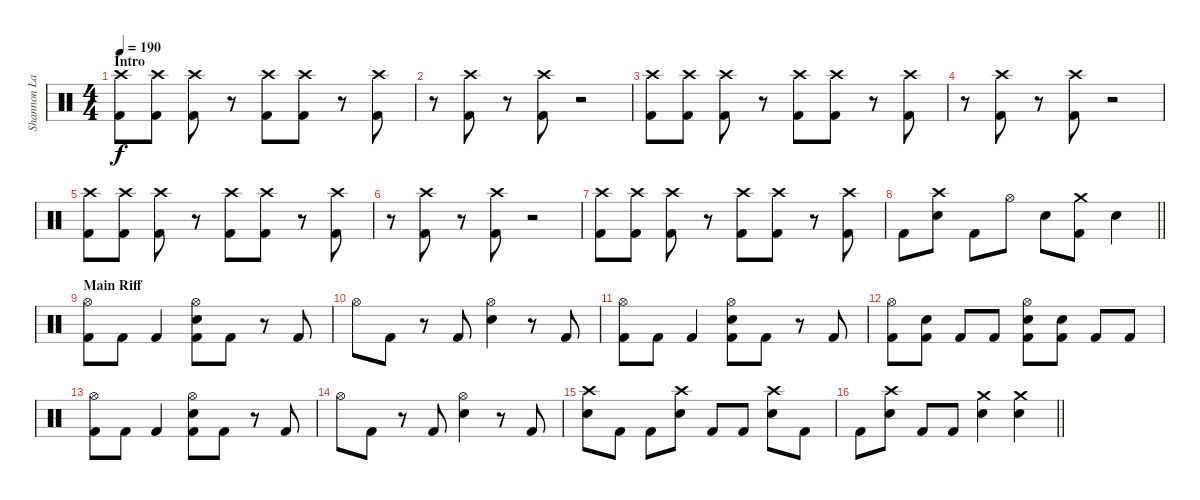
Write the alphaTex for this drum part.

\track ("Shannon Larkin" "Shannon La") {instrument percussion}
\staff {score}
\articulation defaults
\ts (4 4)
\section ("" "Intro")
\tempo 190
\clef neutral
\ks c
("Crash high (hit)" "Kick (hit) 2").8{dy f} ("Crash high (hit)" "Kick (hit) 2").8 ("Crash high (hit)" "Kick (hit) 2").8 r.8 ("Crash high (hit)" "Kick (hit) 2").8 ("Crash high (hit)" "Kick (hit) 2").8 r.8 ("Crash high (hit)" "Kick (hit) 2").8 |
r.8 ("Crash high (hit)" "Kick (hit) 2").8 r.8 ("Crash high (hit)" "Kick (hit) 2").8 r.2 |
("Crash high (hit)" "Kick (hit) 2").8 ("Crash high (hit)" "Kick (hit) 2").8 ("Crash high (hit)" "Kick (hit) 2").8 r.8 ("Crash high (hit)" "Kick (hit) 2").8 ("Crash high (hit)" "Kick (hit) 2").8 r.8 ("Crash high (hit)" "Kick (hit) 2").8 |
r.8 ("Crash high (hit)" "Kick (hit) 2").8 r.8 ("Crash high (hit)" "Kick (hit) 2").8 r.2 |
("Crash high (hit)" "Kick (hit) 2").8 ("Crash high (hit)" "Kick (hit) 2").8 ("Crash high (hit)" "Kick (hit) 2").8 r.8 ("Crash high (hit)" "Kick (hit) 2").8 ("Crash high (hit)" "Kick (hit) 2").8 r.8 ("Crash high (hit)" "Kick (hit) 2").8 |
r.8 ("Crash high (hit)" "Kick (hit) 2").8 r.8 ("Crash high (hit)" "Kick (hit) 2").8 r.2 |
("Crash high (hit)" "Kick (hit) 2").8 ("Crash high (hit)" "Kick (hit) 2").8 ("Crash high (hit)" "Kick (hit) 2").8 r.8 ("Crash high (hit)" "Kick (hit) 2").8 ("Crash high (hit)" "Kick (hit) 2").8 r.8 ("Crash high (hit)" "Kick (hit) 2").8 |
\barLineRight lightlight "Kick (hit) 2".8
("Crash high (hit)" "Snare (hit) 2").8 "Kick (hit) 2".8 "Hi-Hat (open)".8 "Snare (hit) 2".8 ("Crash medium (hit)" "Kick (hit) 2").8 "Snare (hit) 2".4 |
\section ("" "Main Riff")
("Hi-Hat (open)" "Kick (hit) 2").8 "Kick (hit) 2".8 "Kick (hit) 2".4 ("Hi-Hat (open)" "Snare (hit) 2" "Kick (hit) 2").8 "Kick (hit) 2".8 r.8 "Kick (hit) 2".8 |
"Hi-Hat (open)".8 "Kick (hit) 2".8 r.8 "Kick (hit) 2".8 ("Hi-Hat (open)" "Snare (hit) 2").4 r.8 "Kick (hit) 2".8 |
("Hi-Hat (open)" "Kick (hit) 2").8 "Kick (hit) 2".8 "Kick (hit) 2".4 ("Hi-Hat (open)" "Snare (hit) 2" "Kick (hit) 2").8 "Kick (hit) 2".8 r.8 "Kick (hit) 2".8 |
("Hi-Hat (open)" "Kick (hit) 2").8 ("Snare (hit) 2" "Kick (hit) 2").8 "Kick (hit) 2".8 "Kick (hit) 2".8 ("Hi-Hat (open)" "Snare (hit) 2" "Kick (hit) 2").8 ("Snare (hit) 2" "Kick (hit) 2").8 "Kick (hit) 2".8 "Kick (hit) 2".8 |
("Hi-Hat (open)" "Kick (hit) 2").8 "Kick (hit) 2".8 "Kick (hit) 2".4 ("Hi-Hat (open)" "Snare (hit) 2" "Kick (hit) 2").8 "Kick (hit) 2".8 r.8 "Kick (hit) 2".8 |
"Hi-Hat (open)".8 "Kick (hit) 2".8 r.8 "Kick (hit) 2".8 ("Hi-Hat (open)" "Snare (hit) 2").4 r.8 "Kick (hit) 2".8 |
("Crash high (hit)" "Snare (hit) 2").8 "Kick (hit) 2".8 "Kick (hit) 2".8 ("Crash high (hit)" "Snare (hit) 2").8 "Kick (hit) 2".8 "Kick (hit) 2".8 ("Crash high (hit)" "Snare (hit) 2").8 "Kick (hit) 2".8 |
\barLineRight lightlight "Kick (hit) 2".8
("Crash high (hit)" "Snare (hit) 2").8 "Kick (hit) 2".8 "Kick (hit) 2".8 ("Crash medium (hit)" "Snare (hit) 2").4 ("Crash medium (hit)" "Snare (hit) 2").4
